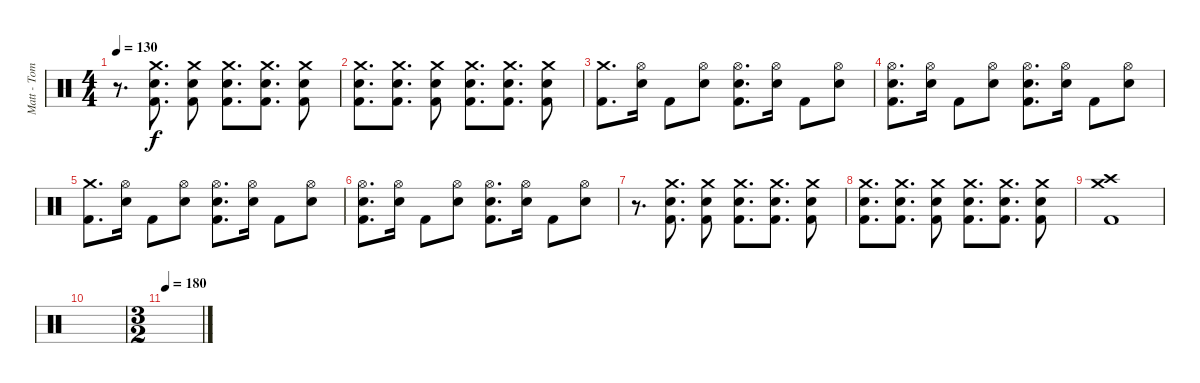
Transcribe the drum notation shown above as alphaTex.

\track ("Matt - Tom" "Matt - Tom") {instrument percussion}
\staff {score}
\articulation defaults
\ts (4 4)
\tempo 130
\clef neutral
\ks c
r.8{d dy f} ("Crash medium (hit)" "Electric Snare (hit)" "Kick (hit) 2").8{d} ("Crash medium (hit)" "Electric Snare (hit)" "Kick (hit) 2").8 ("Crash medium (hit)" "Electric Snare (hit)" "Kick (hit) 2").8{d} ("Crash medium (hit)" "Electric Snare (hit)" "Kick (hit) 2").8{d} ("Crash medium (hit)" "Electric Snare (hit)" "Kick (hit) 2").8 |
("Crash medium (hit)" "Electric Snare (hit)" "Kick (hit) 2").8{d} ("Crash medium (hit)" "Electric Snare (hit)" "Kick (hit) 2").8{d} ("Crash medium (hit)" "Electric Snare (hit)" "Kick (hit) 2").8 ("Crash medium (hit)" "Electric Snare (hit)" "Kick (hit) 2").8{d} ("Crash medium (hit)" "Electric Snare (hit)" "Kick (hit) 2").8{d} ("Crash medium (hit)" "Electric Snare (hit)" "Kick (hit) 2").8 |
("Crash medium (hit)" "Kick (hit) 2").8{d} ("Hi-Hat (open)" "Electric Snare (hit)").16 "Kick (hit) 2".8 ("Hi-Hat (open)" "Electric Snare (hit)").8 ("Hi-Hat (open)" "Electric Snare (hit)" "Kick (hit) 2").8{d} ("Hi-Hat (open)" "Electric Snare (hit)").16 "Kick (hit) 2".8 ("Hi-Hat (open)" "Electric Snare (hit)").8 |
("Hi-Hat (open)" "Electric Snare (hit)" "Kick (hit) 2").8{d} ("Hi-Hat (open)" "Electric Snare (hit)").16 "Kick (hit) 2".8 ("Hi-Hat (open)" "Electric Snare (hit)").8 ("Hi-Hat (open)" "Electric Snare (hit)" "Kick (hit) 2").8{d} ("Hi-Hat (open)" "Electric Snare (hit)").16 "Kick (hit) 2".8 ("Hi-Hat (open)" "Electric Snare (hit)").8 |
("Crash medium (hit)" "Kick (hit) 2").8{d} ("Hi-Hat (open)" "Electric Snare (hit)").16 "Kick (hit) 2".8 ("Hi-Hat (open)" "Electric Snare (hit)").8 ("Hi-Hat (open)" "Electric Snare (hit)" "Kick (hit) 2").8{d} ("Hi-Hat (open)" "Electric Snare (hit)").16 "Kick (hit) 2".8 ("Hi-Hat (open)" "Electric Snare (hit)").8 |
("Hi-Hat (open)" "Electric Snare (hit)" "Kick (hit) 2").8{d} ("Hi-Hat (open)" "Electric Snare (hit)").16 "Kick (hit) 2".8 ("Hi-Hat (open)" "Electric Snare (hit)").8 ("Hi-Hat (open)" "Electric Snare (hit)" "Kick (hit) 2").8{d} ("Hi-Hat (open)" "Electric Snare (hit)").16 "Kick (hit) 2".8 ("Hi-Hat (open)" "Electric Snare (hit)").8 |
r.8{d} ("Crash medium (hit)" "Electric Snare (hit)" "Kick (hit) 2").8{d} ("Crash medium (hit)" "Electric Snare (hit)" "Kick (hit) 2").8 ("Crash medium (hit)" "Electric Snare (hit)" "Kick (hit) 2").8{d} ("Crash medium (hit)" "Electric Snare (hit)" "Kick (hit) 2").8{d} ("Crash medium (hit)" "Electric Snare (hit)" "Kick (hit) 2").8 |
("Crash medium (hit)" "Electric Snare (hit)" "Kick (hit) 2").8{d} ("Crash medium (hit)" "Electric Snare (hit)" "Kick (hit) 2").8{d} ("Crash medium (hit)" "Electric Snare (hit)" "Kick (hit) 2").8 ("Crash medium (hit)" "Electric Snare (hit)" "Kick (hit) 2").8{d} ("Crash medium (hit)" "Electric Snare (hit)" "Kick (hit) 2").8{d} ("Crash medium (hit)" "Electric Snare (hit)" "Kick (hit) 2").8 |
("Crash medium (hit)" "Crash high (hit)" "Kick (hit) 2").1 |
|
\ts (3 2)
\tempo 180
